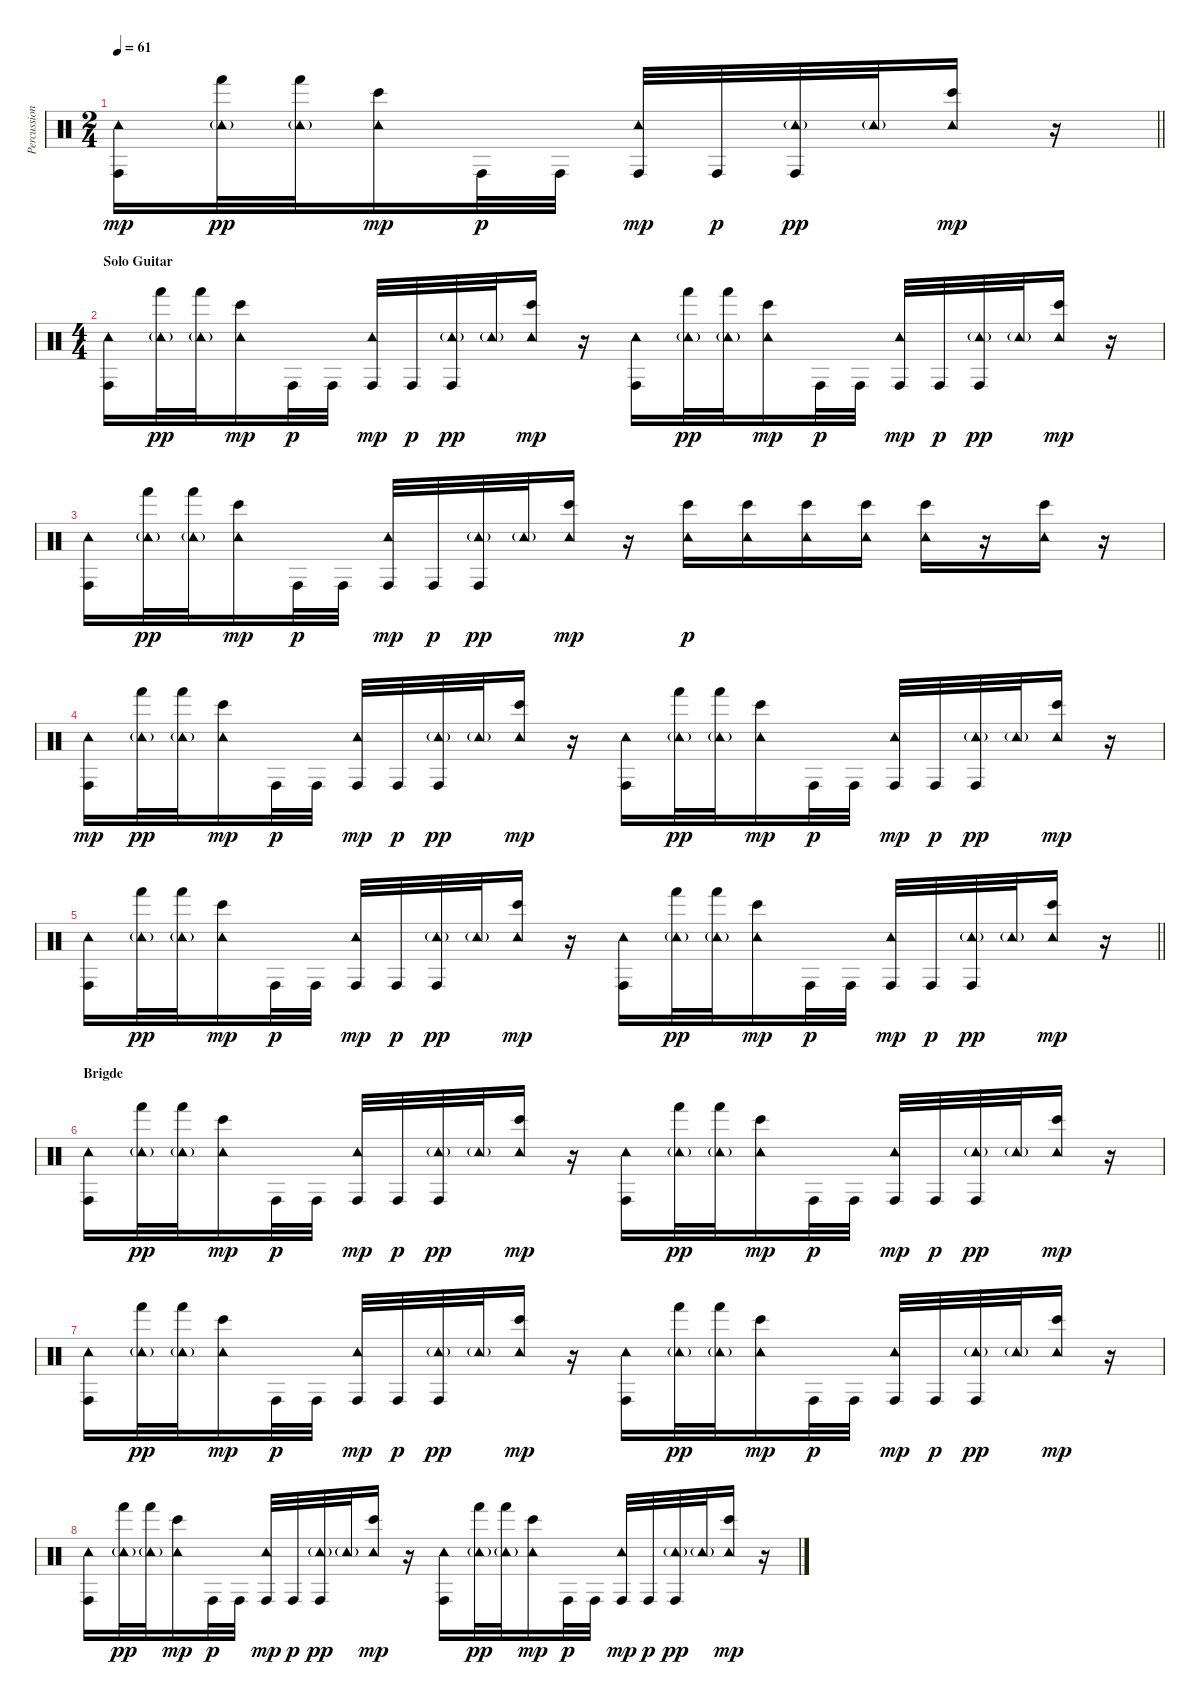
\track ("Percussion 2" "Percussion") {instrument percussion}
\staff {score}
\articulation defaults
\ts (2 4)
\tempo 61
\clef neutral
\barLineRight lightlight
\ks c
("Conga high (hit)" "Tambourine (hit)").16{dy mp} ("Hand (hit)" "Tambourine (hit)"{g}).32{dy pp} ("Hand (hit)" "Tambourine (hit)"{g}).32 ("Bongo High (hit)" "Tambourine (hit)").16{dy mp} "Conga high (hit)".32{dy p} "Conga high (hit)".32 ("Conga high (hit)" "Tambourine (hit)").32{dy mp} "Conga high (hit)".32{dy p} ("Conga high (hit)" "Tambourine (hit)"{g}).32{dy pp} "Tambourine (hit)"{g}.32 ("Bongo High (hit)" "Tambourine (hit)").16{dy mp} r.16 |
\ts (4 4)
\section ("" "Solo Guitar")
("Conga high (hit)" "Tambourine (hit)").16 ("Hand (hit)" "Tambourine (hit)"{g}).32{dy pp} ("Hand (hit)" "Tambourine (hit)"{g}).32 ("Bongo High (hit)" "Tambourine (hit)").16{dy mp} "Conga high (hit)".32{dy p} "Conga high (hit)".32 ("Conga high (hit)" "Tambourine (hit)").32{dy mp} "Conga high (hit)".32{dy p} ("Conga high (hit)" "Tambourine (hit)"{g}).32{dy pp} "Tambourine (hit)"{g}.32 ("Bongo High (hit)" "Tambourine (hit)").16{dy mp} r.16 ("Conga high (hit)" "Tambourine (hit)").16 ("Hand (hit)" "Tambourine (hit)"{g}).32{dy pp} ("Hand (hit)" "Tambourine (hit)"{g}).32 ("Bongo High (hit)" "Tambourine (hit)").16{dy mp} "Conga high (hit)".32{dy p} "Conga high (hit)".32 ("Conga high (hit)" "Tambourine (hit)").32{dy mp} "Conga high (hit)".32{dy p} ("Conga high (hit)" "Tambourine (hit)"{g}).32{dy pp} "Tambourine (hit)"{g}.32 ("Bongo High (hit)" "Tambourine (hit)").16{dy mp} r.16 |
("Conga high (hit)" "Tambourine (hit)").16 ("Hand (hit)" "Tambourine (hit)"{g}).32{dy pp} ("Hand (hit)" "Tambourine (hit)"{g}).32 ("Bongo High (hit)" "Tambourine (hit)").16{dy mp} "Conga high (hit)".32{dy p} "Conga high (hit)".32 ("Conga high (hit)" "Tambourine (hit)").32{dy mp} "Conga high (hit)".32{dy p} ("Conga high (hit)" "Tambourine (hit)"{g}).32{dy pp} "Tambourine (hit)"{g}.32 ("Bongo High (hit)" "Tambourine (hit)").16{dy mp} r.16 ("Bongo High (hit)" "Tambourine (hit)").16{dy p} ("Bongo High (hit)" "Tambourine (hit)").16 ("Bongo High (hit)" "Tambourine (hit)").16 ("Bongo High (hit)" "Tambourine (hit)").16 ("Bongo High (hit)" "Tambourine (hit)").16 r.16 ("Bongo High (hit)" "Tambourine (hit)").16 r.16 |
("Conga high (hit)" "Tambourine (hit)").16{dy mp} ("Hand (hit)" "Tambourine (hit)"{g}).32{dy pp} ("Hand (hit)" "Tambourine (hit)"{g}).32 ("Bongo High (hit)" "Tambourine (hit)").16{dy mp} "Conga high (hit)".32{dy p} "Conga high (hit)".32 ("Conga high (hit)" "Tambourine (hit)").32{dy mp} "Conga high (hit)".32{dy p} ("Conga high (hit)" "Tambourine (hit)"{g}).32{dy pp} "Tambourine (hit)"{g}.32 ("Bongo High (hit)" "Tambourine (hit)").16{dy mp} r.16 ("Conga high (hit)" "Tambourine (hit)").16 ("Hand (hit)" "Tambourine (hit)"{g}).32{dy pp} ("Hand (hit)" "Tambourine (hit)"{g}).32 ("Bongo High (hit)" "Tambourine (hit)").16{dy mp} "Conga high (hit)".32{dy p} "Conga high (hit)".32 ("Conga high (hit)" "Tambourine (hit)").32{dy mp} "Conga high (hit)".32{dy p} ("Conga high (hit)" "Tambourine (hit)"{g}).32{dy pp} "Tambourine (hit)"{g}.32 ("Bongo High (hit)" "Tambourine (hit)").16{dy mp} r.16 |
\barLineRight lightlight
("Conga high (hit)" "Tambourine (hit)").16 ("Hand (hit)" "Tambourine (hit)"{g}).32{dy pp} ("Hand (hit)" "Tambourine (hit)"{g}).32 ("Bongo High (hit)" "Tambourine (hit)").16{dy mp} "Conga high (hit)".32{dy p} "Conga high (hit)".32 ("Conga high (hit)" "Tambourine (hit)").32{dy mp} "Conga high (hit)".32{dy p} ("Conga high (hit)" "Tambourine (hit)"{g}).32{dy pp} "Tambourine (hit)"{g}.32 ("Bongo High (hit)" "Tambourine (hit)").16{dy mp} r.16 ("Conga high (hit)" "Tambourine (hit)").16 ("Hand (hit)" "Tambourine (hit)"{g}).32{dy pp} ("Hand (hit)" "Tambourine (hit)"{g}).32 ("Bongo High (hit)" "Tambourine (hit)").16{dy mp} "Conga high (hit)".32{dy p} "Conga high (hit)".32 ("Conga high (hit)" "Tambourine (hit)").32{dy mp} "Conga high (hit)".32{dy p} ("Conga high (hit)" "Tambourine (hit)"{g}).32{dy pp} "Tambourine (hit)"{g}.32 ("Bongo High (hit)" "Tambourine (hit)").16{dy mp} r.16 |
\section ("" "Brigde")
("Conga high (hit)" "Tambourine (hit)").16 ("Hand (hit)" "Tambourine (hit)"{g}).32{dy pp} ("Hand (hit)" "Tambourine (hit)"{g}).32 ("Bongo High (hit)" "Tambourine (hit)").16{dy mp} "Conga high (hit)".32{dy p} "Conga high (hit)".32 ("Conga high (hit)" "Tambourine (hit)").32{dy mp} "Conga high (hit)".32{dy p} ("Conga high (hit)" "Tambourine (hit)"{g}).32{dy pp} "Tambourine (hit)"{g}.32 ("Bongo High (hit)" "Tambourine (hit)").16{dy mp} r.16 ("Conga high (hit)" "Tambourine (hit)").16 ("Hand (hit)" "Tambourine (hit)"{g}).32{dy pp} ("Hand (hit)" "Tambourine (hit)"{g}).32 ("Bongo High (hit)" "Tambourine (hit)").16{dy mp} "Conga high (hit)".32{dy p} "Conga high (hit)".32 ("Conga high (hit)" "Tambourine (hit)").32{dy mp} "Conga high (hit)".32{dy p} ("Conga high (hit)" "Tambourine (hit)"{g}).32{dy pp} "Tambourine (hit)"{g}.32 ("Bongo High (hit)" "Tambourine (hit)").16{dy mp} r.16 |
("Conga high (hit)" "Tambourine (hit)").16 ("Hand (hit)" "Tambourine (hit)"{g}).32{dy pp} ("Hand (hit)" "Tambourine (hit)"{g}).32 ("Bongo High (hit)" "Tambourine (hit)").16{dy mp} "Conga high (hit)".32{dy p} "Conga high (hit)".32 ("Conga high (hit)" "Tambourine (hit)").32{dy mp} "Conga high (hit)".32{dy p} ("Conga high (hit)" "Tambourine (hit)"{g}).32{dy pp} "Tambourine (hit)"{g}.32 ("Bongo High (hit)" "Tambourine (hit)").16{dy mp} r.16 ("Conga high (hit)" "Tambourine (hit)").16 ("Hand (hit)" "Tambourine (hit)"{g}).32{dy pp} ("Hand (hit)" "Tambourine (hit)"{g}).32 ("Bongo High (hit)" "Tambourine (hit)").16{dy mp} "Conga high (hit)".32{dy p} "Conga high (hit)".32 ("Conga high (hit)" "Tambourine (hit)").32{dy mp} "Conga high (hit)".32{dy p} ("Conga high (hit)" "Tambourine (hit)"{g}).32{dy pp} "Tambourine (hit)"{g}.32 ("Bongo High (hit)" "Tambourine (hit)").16{dy mp} r.16 |
("Conga high (hit)" "Tambourine (hit)").16 ("Hand (hit)" "Tambourine (hit)"{g}).32{dy pp} ("Hand (hit)" "Tambourine (hit)"{g}).32 ("Bongo High (hit)" "Tambourine (hit)").16{dy mp} "Conga high (hit)".32{dy p} "Conga high (hit)".32 ("Conga high (hit)" "Tambourine (hit)").32{dy mp} "Conga high (hit)".32{dy p} ("Conga high (hit)" "Tambourine (hit)"{g}).32{dy pp} "Tambourine (hit)"{g}.32 ("Bongo High (hit)" "Tambourine (hit)").16{dy mp} r.16 ("Conga high (hit)" "Tambourine (hit)").16 ("Hand (hit)" "Tambourine (hit)"{g}).32{dy pp} ("Hand (hit)" "Tambourine (hit)"{g}).32 ("Bongo High (hit)" "Tambourine (hit)").16{dy mp} "Conga high (hit)".32{dy p} "Conga high (hit)".32 ("Conga high (hit)" "Tambourine (hit)").32{dy mp} "Conga high (hit)".32{dy p} ("Conga high (hit)" "Tambourine (hit)"{g}).32{dy pp} "Tambourine (hit)"{g}.32 ("Bongo High (hit)" "Tambourine (hit)").16{dy mp} r.16
